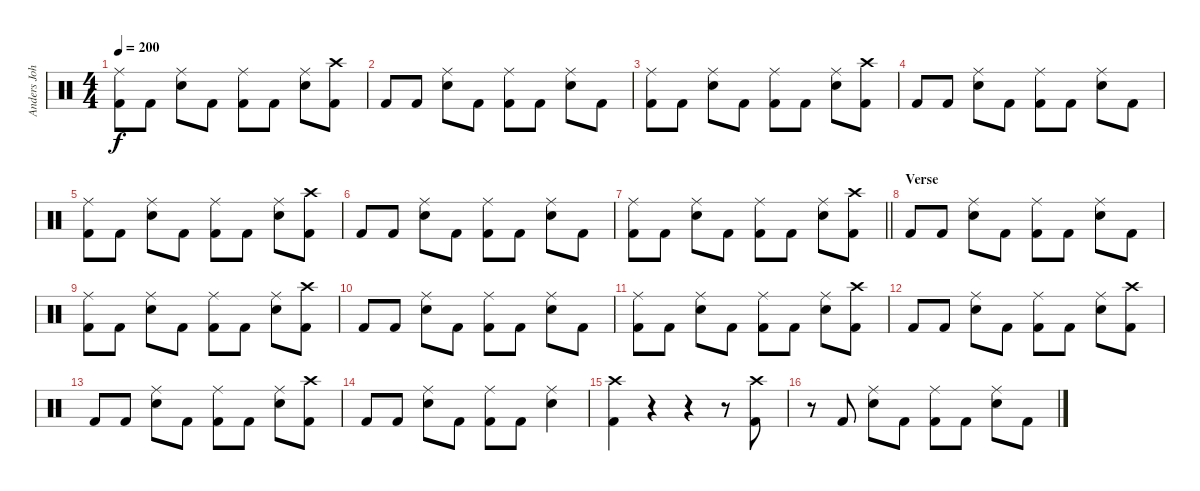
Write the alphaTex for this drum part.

\track ("Anders Johansson" "Anders Joh") {instrument percussion}
\staff {score}
\articulation defaults
\ts (4 4)
\tempo 200
\clef neutral
\ks c
("Ride (middle)" "Kick (hit) 2").8{dy f} "Kick (hit) 2".8 ("Ride (middle)" "Snare (hit) 2").8 "Kick (hit) 2".8 ("Ride (middle)" "Kick (hit) 2").8 "Kick (hit) 2".8 ("Ride (middle)" "Snare (hit) 2").8 ("Crash high (hit)" "Kick (hit) 2").8 |
"Kick (hit) 2".8 "Kick (hit) 2".8 ("Ride (middle)" "Snare (hit) 2").8 "Kick (hit) 2".8 ("Ride (middle)" "Kick (hit) 2").8 "Kick (hit) 2".8 ("Ride (middle)" "Snare (hit) 2").8 "Kick (hit) 2".8 |
("Ride (middle)" "Kick (hit) 2").8 "Kick (hit) 2".8 ("Ride (middle)" "Snare (hit) 2").8 "Kick (hit) 2".8 ("Ride (middle)" "Kick (hit) 2").8 "Kick (hit) 2".8 ("Ride (middle)" "Snare (hit) 2").8 ("Crash high (hit)" "Kick (hit) 2").8 |
"Kick (hit) 2".8 "Kick (hit) 2".8 ("Ride (middle)" "Snare (hit) 2").8 "Kick (hit) 2".8 ("Ride (middle)" "Kick (hit) 2").8 "Kick (hit) 2".8 ("Ride (middle)" "Snare (hit) 2").8 "Kick (hit) 2".8 |
("Ride (middle)" "Kick (hit) 2").8 "Kick (hit) 2".8 ("Ride (middle)" "Snare (hit) 2").8 "Kick (hit) 2".8 ("Ride (middle)" "Kick (hit) 2").8 "Kick (hit) 2".8 ("Ride (middle)" "Snare (hit) 2").8 ("Crash high (hit)" "Kick (hit) 2").8 |
"Kick (hit) 2".8 "Kick (hit) 2".8 ("Ride (middle)" "Snare (hit) 2").8 "Kick (hit) 2".8 ("Ride (middle)" "Kick (hit) 2").8 "Kick (hit) 2".8 ("Ride (middle)" "Snare (hit) 2").8 "Kick (hit) 2".8 |
\barLineRight lightlight
("Ride (middle)" "Kick (hit) 2").8 "Kick (hit) 2".8 ("Ride (middle)" "Snare (hit) 2").8 "Kick (hit) 2".8 ("Ride (middle)" "Kick (hit) 2").8 "Kick (hit) 2".8 ("Ride (middle)" "Snare (hit) 2").8 ("Crash high (hit)" "Kick (hit) 2").8 |
\section ("" "Verse")
"Kick (hit) 2".8 "Kick (hit) 2".8 ("Ride (middle)" "Snare (hit) 2").8 "Kick (hit) 2".8 ("Ride (middle)" "Kick (hit) 2").8 "Kick (hit) 2".8 ("Ride (middle)" "Snare (hit) 2").8 "Kick (hit) 2".8 |
("Ride (middle)" "Kick (hit) 2").8 "Kick (hit) 2".8 ("Ride (middle)" "Snare (hit) 2").8 "Kick (hit) 2".8 ("Ride (middle)" "Kick (hit) 2").8 "Kick (hit) 2".8 ("Ride (middle)" "Snare (hit) 2").8 ("Crash high (hit)" "Kick (hit) 2").8 |
"Kick (hit) 2".8 "Kick (hit) 2".8 ("Ride (middle)" "Snare (hit) 2").8 "Kick (hit) 2".8 ("Ride (middle)" "Kick (hit) 2").8 "Kick (hit) 2".8 ("Ride (middle)" "Snare (hit) 2").8 "Kick (hit) 2".8 |
("Ride (middle)" "Kick (hit) 2").8 "Kick (hit) 2".8 ("Ride (middle)" "Snare (hit) 2").8 "Kick (hit) 2".8 ("Ride (middle)" "Kick (hit) 2").8 "Kick (hit) 2".8 ("Ride (middle)" "Snare (hit) 2").8 ("Crash high (hit)" "Kick (hit) 2").8 |
"Kick (hit) 2".8 "Kick (hit) 2".8 ("Ride (middle)" "Snare (hit) 2").8 "Kick (hit) 2".8 ("Ride (middle)" "Kick (hit) 2").8 "Kick (hit) 2".8 ("Ride (middle)" "Snare (hit) 2").8 ("Crash high (hit)" "Kick (hit) 2").8 |
"Kick (hit) 2".8 "Kick (hit) 2".8 ("Ride (middle)" "Snare (hit) 2").8 "Kick (hit) 2".8 ("Ride (middle)" "Kick (hit) 2").8 "Kick (hit) 2".8 ("Ride (middle)" "Snare (hit) 2").8 ("Crash high (hit)" "Kick (hit) 2").8 |
"Kick (hit) 2".8 "Kick (hit) 2".8 ("Ride (middle)" "Snare (hit) 2").8 "Kick (hit) 2".8 ("Ride (middle)" "Kick (hit) 2").8 "Kick (hit) 2".8 ("Ride (middle)" "Snare (hit) 2").4 |
("Crash high (hit)" "Kick (hit) 2").4 r.4 r.4 r.8 ("Crash high (hit)" "Kick (hit) 2").8 |
r.8 "Kick (hit) 2".8 ("Ride (middle)" "Snare (hit) 2").8 "Kick (hit) 2".8 ("Ride (middle)" "Kick (hit) 2").8 "Kick (hit) 2".8 ("Ride (middle)" "Snare (hit) 2").8 "Kick (hit) 2".8
